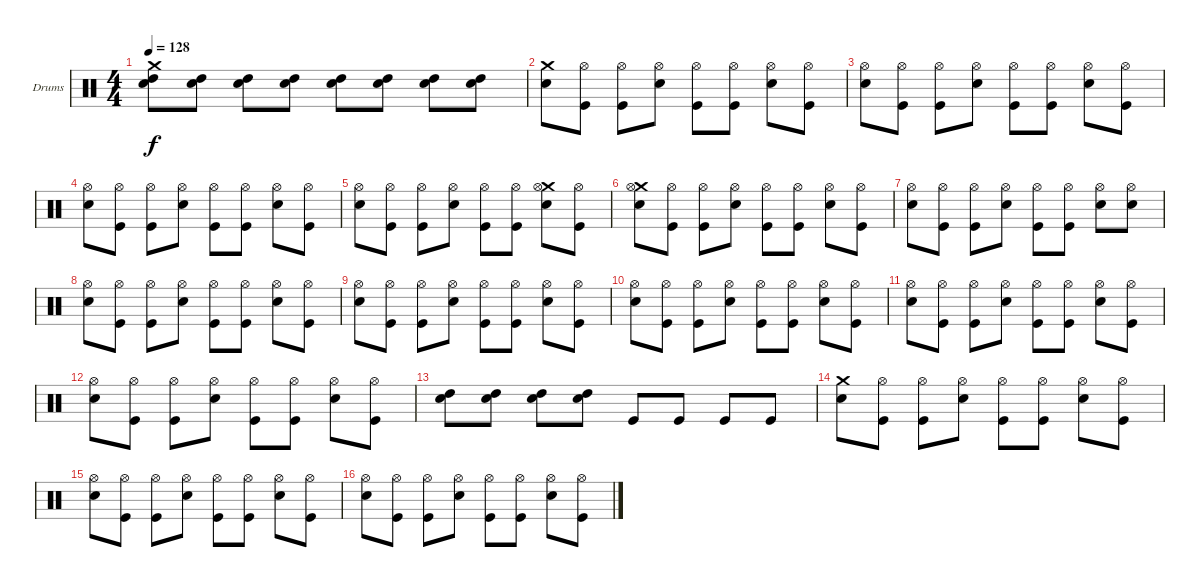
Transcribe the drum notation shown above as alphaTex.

\bracketExtendMode groupsimilarinstruments
\firstSystemTrackNameOrientation horizontal
\otherSystemsTrackNameOrientation horizontal
\track ("Drumkit (Christoph)" "Drums") {instrument percussion}
\staff {score}
\articulation defaults
\ts (4 4)
\tempo 128
\clef neutral
\ks c
("Crash medium (hit)" "Snare (hit) 2" "High Tom (hit)").8{dy f} ("Snare (hit) 2" "High Tom (hit)").8 ("Snare (hit) 2" "High Tom (hit)").8 ("Snare (hit) 2" "High Tom (hit)").8 ("Snare (hit) 2" "High Tom (hit)").8 ("Snare (hit) 2" "High Tom (hit)").8 ("Snare (hit) 2" "High Tom (hit)").8 ("Snare (hit) 2" "High Tom (hit)").8 |
("Crash medium (hit)" "Snare (hit) 2").8 ("Kick (hit)" "Hi-Hat (open)").8 ("Kick (hit)" "Hi-Hat (open)").8 ("Snare (hit) 2" "Hi-Hat (open)").8 ("Kick (hit)" "Hi-Hat (open)").8 ("Kick (hit)" "Hi-Hat (open)").8 ("Snare (hit) 2" "Hi-Hat (open)").8 ("Kick (hit)" "Hi-Hat (open)").8 |
("Snare (hit) 2" "Hi-Hat (open)").8 ("Kick (hit)" "Hi-Hat (open)").8 ("Kick (hit)" "Hi-Hat (open)").8 ("Snare (hit) 2" "Hi-Hat (open)").8 ("Kick (hit)" "Hi-Hat (open)").8 ("Kick (hit)" "Hi-Hat (open)").8 ("Snare (hit) 2" "Hi-Hat (open)").8 ("Kick (hit)" "Hi-Hat (open)").8 |
("Snare (hit) 2" "Hi-Hat (open)").8 ("Kick (hit)" "Hi-Hat (open)").8 ("Kick (hit)" "Hi-Hat (open)").8 ("Snare (hit) 2" "Hi-Hat (open)").8 ("Kick (hit)" "Hi-Hat (open)").8 ("Kick (hit)" "Hi-Hat (open)").8 ("Snare (hit) 2" "Hi-Hat (open)").8 ("Kick (hit)" "Hi-Hat (open)").8 |
("Snare (hit) 2" "Hi-Hat (open)").8 ("Kick (hit)" "Hi-Hat (open)").8 ("Kick (hit)" "Hi-Hat (open)").8 ("Snare (hit) 2" "Hi-Hat (open)").8 ("Kick (hit)" "Hi-Hat (open)").8 ("Kick (hit)" "Hi-Hat (open)").8 ("Crash medium (hit)" "Snare (hit) 2" "Hi-Hat (open)").8 ("Kick (hit)" "Hi-Hat (open)").8 |
("Crash medium (hit)" "Snare (hit) 2" "Hi-Hat (open)").8 ("Kick (hit)" "Hi-Hat (open)").8 ("Kick (hit)" "Hi-Hat (open)").8 ("Snare (hit) 2" "Hi-Hat (open)").8 ("Kick (hit)" "Hi-Hat (open)").8 ("Kick (hit)" "Hi-Hat (open)").8 ("Snare (hit) 2" "Hi-Hat (open)").8 ("Kick (hit)" "Hi-Hat (open)").8 |
("Snare (hit) 2" "Hi-Hat (open)").8 ("Kick (hit)" "Hi-Hat (open)").8 ("Kick (hit)" "Hi-Hat (open)").8 ("Snare (hit) 2" "Hi-Hat (open)").8 ("Kick (hit)" "Hi-Hat (open)").8 ("Kick (hit)" "Hi-Hat (open)").8 ("Snare (hit) 2" "Hi-Hat (open)").8 ("Snare (hit) 2" "Hi-Hat (open)").8 |
("Snare (hit) 2" "Hi-Hat (open)").8 ("Kick (hit)" "Hi-Hat (open)").8 ("Kick (hit)" "Hi-Hat (open)").8 ("Snare (hit) 2" "Hi-Hat (open)").8 ("Kick (hit)" "Hi-Hat (open)").8 ("Kick (hit)" "Hi-Hat (open)").8 ("Snare (hit) 2" "Hi-Hat (open)").8 ("Kick (hit)" "Hi-Hat (open)").8 |
("Snare (hit) 2" "Hi-Hat (open)").8 ("Kick (hit)" "Hi-Hat (open)").8 ("Kick (hit)" "Hi-Hat (open)").8 ("Snare (hit) 2" "Hi-Hat (open)").8 ("Kick (hit)" "Hi-Hat (open)").8 ("Kick (hit)" "Hi-Hat (open)").8 ("Snare (hit) 2" "Hi-Hat (open)").8 ("Kick (hit)" "Hi-Hat (open)").8 |
("Snare (hit) 2" "Hi-Hat (open)").8 ("Kick (hit)" "Hi-Hat (open)").8 ("Kick (hit)" "Hi-Hat (open)").8 ("Snare (hit) 2" "Hi-Hat (open)").8 ("Kick (hit)" "Hi-Hat (open)").8 ("Kick (hit)" "Hi-Hat (open)").8 ("Snare (hit) 2" "Hi-Hat (open)").8 ("Kick (hit)" "Hi-Hat (open)").8 |
("Snare (hit) 2" "Hi-Hat (open)").8 ("Kick (hit)" "Hi-Hat (open)").8 ("Kick (hit)" "Hi-Hat (open)").8 ("Snare (hit) 2" "Hi-Hat (open)").8 ("Kick (hit)" "Hi-Hat (open)").8 ("Kick (hit)" "Hi-Hat (open)").8 ("Snare (hit) 2" "Hi-Hat (open)").8 ("Kick (hit)" "Hi-Hat (open)").8 |
("Snare (hit) 2" "Hi-Hat (open)").8 ("Kick (hit)" "Hi-Hat (open)").8 ("Kick (hit)" "Hi-Hat (open)").8 ("Snare (hit) 2" "Hi-Hat (open)").8 ("Kick (hit)" "Hi-Hat (open)").8 ("Kick (hit)" "Hi-Hat (open)").8 ("Snare (hit) 2" "Hi-Hat (open)").8 ("Kick (hit)" "Hi-Hat (open)").8 |
("Snare (hit) 2" "High Tom (hit)").8 ("Snare (hit) 2" "High Tom (hit)").8 ("Snare (hit) 2" "High Tom (hit)").8 ("Snare (hit) 2" "High Tom (hit)").8 "Kick (hit)".8 "Kick (hit)".8 "Kick (hit)".8 "Kick (hit)".8 |
("Crash medium (hit)" "Snare (hit) 2").8 ("Kick (hit)" "Hi-Hat (open)").8 ("Kick (hit)" "Hi-Hat (open)").8 ("Snare (hit) 2" "Hi-Hat (open)").8 ("Kick (hit)" "Hi-Hat (open)").8 ("Kick (hit)" "Hi-Hat (open)").8 ("Snare (hit) 2" "Hi-Hat (open)").8 ("Kick (hit)" "Hi-Hat (open)").8 |
("Snare (hit) 2" "Hi-Hat (open)").8 ("Kick (hit)" "Hi-Hat (open)").8 ("Kick (hit)" "Hi-Hat (open)").8 ("Snare (hit) 2" "Hi-Hat (open)").8 ("Kick (hit)" "Hi-Hat (open)").8 ("Kick (hit)" "Hi-Hat (open)").8 ("Snare (hit) 2" "Hi-Hat (open)").8 ("Kick (hit)" "Hi-Hat (open)").8 |
("Snare (hit) 2" "Hi-Hat (open)").8 ("Kick (hit)" "Hi-Hat (open)").8 ("Kick (hit)" "Hi-Hat (open)").8 ("Snare (hit) 2" "Hi-Hat (open)").8 ("Kick (hit)" "Hi-Hat (open)").8 ("Kick (hit)" "Hi-Hat (open)").8 ("Snare (hit) 2" "Hi-Hat (open)").8 ("Kick (hit)" "Hi-Hat (open)").8
